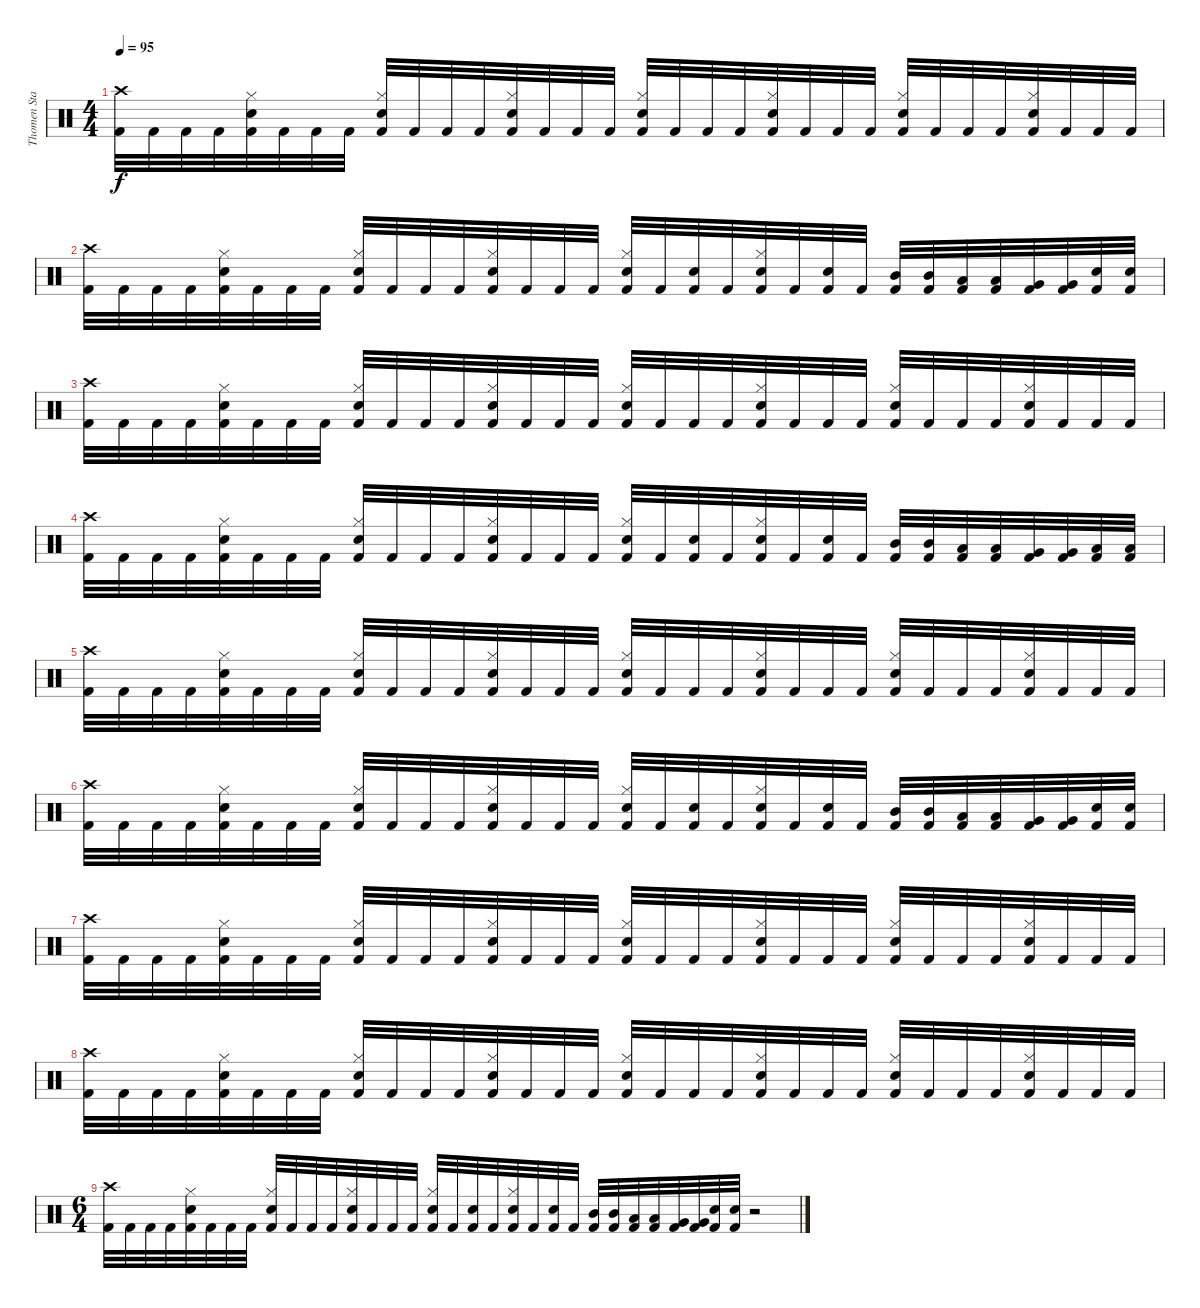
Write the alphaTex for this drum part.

\track ("Thomen Stauch" "Thomen Sta") {instrument percussion}
\staff {score}
\articulation defaults
\ts (4 4)
\tempo 95
\clef neutral
\ks c
("Crash high (hit)" "Kick (hit) 2").32{dy f} "Kick (hit) 2".32 "Kick (hit) 2".32 "Kick (hit) 2".32 ("Hi-Hat (closed)" "Snare (hit) 2" "Kick (hit) 2").32 "Kick (hit) 2".32 "Kick (hit) 2".32 "Kick (hit) 2".32 ("Hi-Hat (closed)" "Snare (hit) 2" "Kick (hit) 2").32 "Kick (hit) 2".32 "Kick (hit) 2".32 "Kick (hit) 2".32 ("Hi-Hat (closed)" "Snare (hit) 2" "Kick (hit) 2").32 "Kick (hit) 2".32 "Kick (hit) 2".32 "Kick (hit) 2".32 ("Hi-Hat (closed)" "Snare (hit) 2" "Kick (hit) 2").32 "Kick (hit) 2".32 "Kick (hit) 2".32 "Kick (hit) 2".32 ("Hi-Hat (closed)" "Snare (hit) 2" "Kick (hit) 2").32 "Kick (hit) 2".32 "Kick (hit) 2".32 "Kick (hit) 2".32 ("Hi-Hat (closed)" "Snare (hit) 2" "Kick (hit) 2").32 "Kick (hit) 2".32 "Kick (hit) 2".32 "Kick (hit) 2".32 ("Hi-Hat (closed)" "Snare (hit) 2" "Kick (hit) 2").32 "Kick (hit) 2".32 "Kick (hit) 2".32 "Kick (hit) 2".32 |
("Crash high (hit)" "Kick (hit) 2").32 "Kick (hit) 2".32 "Kick (hit) 2".32 "Kick (hit) 2".32 ("Hi-Hat (closed)" "Snare (hit) 2" "Kick (hit) 2").32 "Kick (hit) 2".32 "Kick (hit) 2".32 "Kick (hit) 2".32 ("Hi-Hat (closed)" "Snare (hit) 2" "Kick (hit) 2").32 "Kick (hit) 2".32 "Kick (hit) 2".32 "Kick (hit) 2".32 ("Hi-Hat (closed)" "Snare (hit) 2" "Kick (hit) 2").32 "Kick (hit) 2".32 "Kick (hit) 2".32 "Kick (hit) 2".32 ("Hi-Hat (closed)" "Snare (hit) 2" "Kick (hit) 2").32 "Kick (hit) 2".32 ("Snare (hit) 2" "Kick (hit) 2").32 "Kick (hit) 2".32 ("Hi-Hat (closed)" "Snare (hit) 2" "Kick (hit) 2").32 "Kick (hit) 2".32 ("Snare (hit) 2" "Kick (hit) 2").32 "Kick (hit) 2".32 ("Mid Tom (hit)" "Kick (hit) 2").32 ("Mid Tom (hit)" "Kick (hit) 2").32 ("Low Tom (hit)" "Kick (hit) 2").32 ("Low Tom (hit)" "Kick (hit) 2").32 ("Very Low Tom (hit)" "Kick (hit) 2").32 ("Very Low Tom (hit)" "Kick (hit) 2").32 ("Snare (hit) 2" "Kick (hit) 2").32 ("Snare (hit) 2" "Kick (hit) 2").32 |
("Crash high (hit)" "Kick (hit) 2").32 "Kick (hit) 2".32 "Kick (hit) 2".32 "Kick (hit) 2".32 ("Hi-Hat (closed)" "Snare (hit) 2" "Kick (hit) 2").32 "Kick (hit) 2".32 "Kick (hit) 2".32 "Kick (hit) 2".32 ("Hi-Hat (closed)" "Snare (hit) 2" "Kick (hit) 2").32 "Kick (hit) 2".32 "Kick (hit) 2".32 "Kick (hit) 2".32 ("Hi-Hat (closed)" "Snare (hit) 2" "Kick (hit) 2").32 "Kick (hit) 2".32 "Kick (hit) 2".32 "Kick (hit) 2".32 ("Hi-Hat (closed)" "Snare (hit) 2" "Kick (hit) 2").32 "Kick (hit) 2".32 "Kick (hit) 2".32 "Kick (hit) 2".32 ("Hi-Hat (closed)" "Snare (hit) 2" "Kick (hit) 2").32 "Kick (hit) 2".32 "Kick (hit) 2".32 "Kick (hit) 2".32 ("Hi-Hat (closed)" "Snare (hit) 2" "Kick (hit) 2").32 "Kick (hit) 2".32 "Kick (hit) 2".32 "Kick (hit) 2".32 ("Hi-Hat (closed)" "Snare (hit) 2" "Kick (hit) 2").32 "Kick (hit) 2".32 "Kick (hit) 2".32 "Kick (hit) 2".32 |
("Crash high (hit)" "Kick (hit) 2").32 "Kick (hit) 2".32 "Kick (hit) 2".32 "Kick (hit) 2".32 ("Hi-Hat (closed)" "Snare (hit) 2" "Kick (hit) 2").32 "Kick (hit) 2".32 "Kick (hit) 2".32 "Kick (hit) 2".32 ("Hi-Hat (closed)" "Snare (hit) 2" "Kick (hit) 2").32 "Kick (hit) 2".32 "Kick (hit) 2".32 "Kick (hit) 2".32 ("Hi-Hat (closed)" "Snare (hit) 2" "Kick (hit) 2").32 "Kick (hit) 2".32 "Kick (hit) 2".32 "Kick (hit) 2".32 ("Hi-Hat (closed)" "Snare (hit) 2" "Kick (hit) 2").32 "Kick (hit) 2".32 ("Snare (hit) 2" "Kick (hit) 2").32 "Kick (hit) 2".32 ("Hi-Hat (closed)" "Snare (hit) 2" "Kick (hit) 2").32 "Kick (hit) 2".32 ("Snare (hit) 2" "Kick (hit) 2").32 "Kick (hit) 2".32 ("Mid Tom (hit)" "Kick (hit) 2").32 ("Mid Tom (hit)" "Kick (hit) 2").32 ("Low Tom (hit)" "Kick (hit) 2").32 ("Low Tom (hit)" "Kick (hit) 2").32 ("Very Low Tom (hit)" "Kick (hit) 2").32 ("Very Low Tom (hit)" "Kick (hit) 2").32 ("Low Floor Tom (hit)" "Kick (hit) 2").32 ("Low Floor Tom (hit)" "Kick (hit) 2").32 |
("Crash high (hit)" "Kick (hit) 2").32 "Kick (hit) 2".32 "Kick (hit) 2".32 "Kick (hit) 2".32 ("Hi-Hat (closed)" "Snare (hit) 2" "Kick (hit) 2").32 "Kick (hit) 2".32 "Kick (hit) 2".32 "Kick (hit) 2".32 ("Hi-Hat (closed)" "Snare (hit) 2" "Kick (hit) 2").32 "Kick (hit) 2".32 "Kick (hit) 2".32 "Kick (hit) 2".32 ("Hi-Hat (closed)" "Snare (hit) 2" "Kick (hit) 2").32 "Kick (hit) 2".32 "Kick (hit) 2".32 "Kick (hit) 2".32 ("Hi-Hat (closed)" "Snare (hit) 2" "Kick (hit) 2").32 "Kick (hit) 2".32 "Kick (hit) 2".32 "Kick (hit) 2".32 ("Hi-Hat (closed)" "Snare (hit) 2" "Kick (hit) 2").32 "Kick (hit) 2".32 "Kick (hit) 2".32 "Kick (hit) 2".32 ("Hi-Hat (closed)" "Snare (hit) 2" "Kick (hit) 2").32 "Kick (hit) 2".32 "Kick (hit) 2".32 "Kick (hit) 2".32 ("Hi-Hat (closed)" "Snare (hit) 2" "Kick (hit) 2").32 "Kick (hit) 2".32 "Kick (hit) 2".32 "Kick (hit) 2".32 |
("Crash high (hit)" "Kick (hit) 2").32 "Kick (hit) 2".32 "Kick (hit) 2".32 "Kick (hit) 2".32 ("Hi-Hat (closed)" "Snare (hit) 2" "Kick (hit) 2").32 "Kick (hit) 2".32 "Kick (hit) 2".32 "Kick (hit) 2".32 ("Hi-Hat (closed)" "Snare (hit) 2" "Kick (hit) 2").32 "Kick (hit) 2".32 "Kick (hit) 2".32 "Kick (hit) 2".32 ("Hi-Hat (closed)" "Snare (hit) 2" "Kick (hit) 2").32 "Kick (hit) 2".32 "Kick (hit) 2".32 "Kick (hit) 2".32 ("Hi-Hat (closed)" "Snare (hit) 2" "Kick (hit) 2").32 "Kick (hit) 2".32 ("Snare (hit) 2" "Kick (hit) 2").32 "Kick (hit) 2".32 ("Hi-Hat (closed)" "Snare (hit) 2" "Kick (hit) 2").32 "Kick (hit) 2".32 ("Snare (hit) 2" "Kick (hit) 2").32 "Kick (hit) 2".32 ("Mid Tom (hit)" "Kick (hit) 2").32 ("Mid Tom (hit)" "Kick (hit) 2").32 ("Low Tom (hit)" "Kick (hit) 2").32 ("Low Tom (hit)" "Kick (hit) 2").32 ("Very Low Tom (hit)" "Kick (hit) 2").32 ("Very Low Tom (hit)" "Kick (hit) 2").32 ("Snare (hit) 2" "Kick (hit) 2").32 ("Snare (hit) 2" "Kick (hit) 2").32 |
("Crash high (hit)" "Kick (hit) 2").32 "Kick (hit) 2".32 "Kick (hit) 2".32 "Kick (hit) 2".32 ("Hi-Hat (closed)" "Snare (hit) 2" "Kick (hit) 2").32 "Kick (hit) 2".32 "Kick (hit) 2".32 "Kick (hit) 2".32 ("Hi-Hat (closed)" "Snare (hit) 2" "Kick (hit) 2").32 "Kick (hit) 2".32 "Kick (hit) 2".32 "Kick (hit) 2".32 ("Hi-Hat (closed)" "Snare (hit) 2" "Kick (hit) 2").32 "Kick (hit) 2".32 "Kick (hit) 2".32 "Kick (hit) 2".32 ("Hi-Hat (closed)" "Snare (hit) 2" "Kick (hit) 2").32 "Kick (hit) 2".32 "Kick (hit) 2".32 "Kick (hit) 2".32 ("Hi-Hat (closed)" "Snare (hit) 2" "Kick (hit) 2").32 "Kick (hit) 2".32 "Kick (hit) 2".32 "Kick (hit) 2".32 ("Hi-Hat (closed)" "Snare (hit) 2" "Kick (hit) 2").32 "Kick (hit) 2".32 "Kick (hit) 2".32 "Kick (hit) 2".32 ("Hi-Hat (closed)" "Snare (hit) 2" "Kick (hit) 2").32 "Kick (hit) 2".32 "Kick (hit) 2".32 "Kick (hit) 2".32 |
("Crash high (hit)" "Kick (hit) 2").32 "Kick (hit) 2".32 "Kick (hit) 2".32 "Kick (hit) 2".32 ("Hi-Hat (closed)" "Snare (hit) 2" "Kick (hit) 2").32 "Kick (hit) 2".32 "Kick (hit) 2".32 "Kick (hit) 2".32 ("Hi-Hat (closed)" "Snare (hit) 2" "Kick (hit) 2").32 "Kick (hit) 2".32 "Kick (hit) 2".32 "Kick (hit) 2".32 ("Hi-Hat (closed)" "Snare (hit) 2" "Kick (hit) 2").32 "Kick (hit) 2".32 "Kick (hit) 2".32 "Kick (hit) 2".32 ("Hi-Hat (closed)" "Snare (hit) 2" "Kick (hit) 2").32 "Kick (hit) 2".32 "Kick (hit) 2".32 "Kick (hit) 2".32 ("Hi-Hat (closed)" "Snare (hit) 2" "Kick (hit) 2").32 "Kick (hit) 2".32 "Kick (hit) 2".32 "Kick (hit) 2".32 ("Hi-Hat (closed)" "Snare (hit) 2" "Kick (hit) 2").32 "Kick (hit) 2".32 "Kick (hit) 2".32 "Kick (hit) 2".32 ("Hi-Hat (closed)" "Snare (hit) 2" "Kick (hit) 2").32 "Kick (hit) 2".32 "Kick (hit) 2".32 "Kick (hit) 2".32 |
\ts (6 4)
("Crash high (hit)" "Kick (hit) 2").32 "Kick (hit) 2".32 "Kick (hit) 2".32 "Kick (hit) 2".32 ("Hi-Hat (closed)" "Snare (hit) 2" "Kick (hit) 2").32 "Kick (hit) 2".32 "Kick (hit) 2".32 "Kick (hit) 2".32 ("Hi-Hat (closed)" "Snare (hit) 2" "Kick (hit) 2").32 "Kick (hit) 2".32 "Kick (hit) 2".32 "Kick (hit) 2".32 ("Hi-Hat (closed)" "Snare (hit) 2" "Kick (hit) 2").32 "Kick (hit) 2".32 "Kick (hit) 2".32 "Kick (hit) 2".32 ("Hi-Hat (closed)" "Snare (hit) 2" "Kick (hit) 2").32 "Kick (hit) 2".32 ("Snare (hit) 2" "Kick (hit) 2").32 "Kick (hit) 2".32 ("Hi-Hat (closed)" "Snare (hit) 2" "Kick (hit) 2").32 "Kick (hit) 2".32 ("Snare (hit) 2" "Kick (hit) 2").32 "Kick (hit) 2".32 ("Mid Tom (hit)" "Kick (hit) 2").32 ("Mid Tom (hit)" "Kick (hit) 2").32 ("Low Tom (hit)" "Kick (hit) 2").32 ("Low Tom (hit)" "Kick (hit) 2").32 ("Very Low Tom (hit)" "Kick (hit) 2").32 ("Very Low Tom (hit)" "Kick (hit) 2").32 ("Snare (hit) 2" "Kick (hit) 2").32 ("Snare (hit) 2" "Kick (hit) 2").32 r.2
